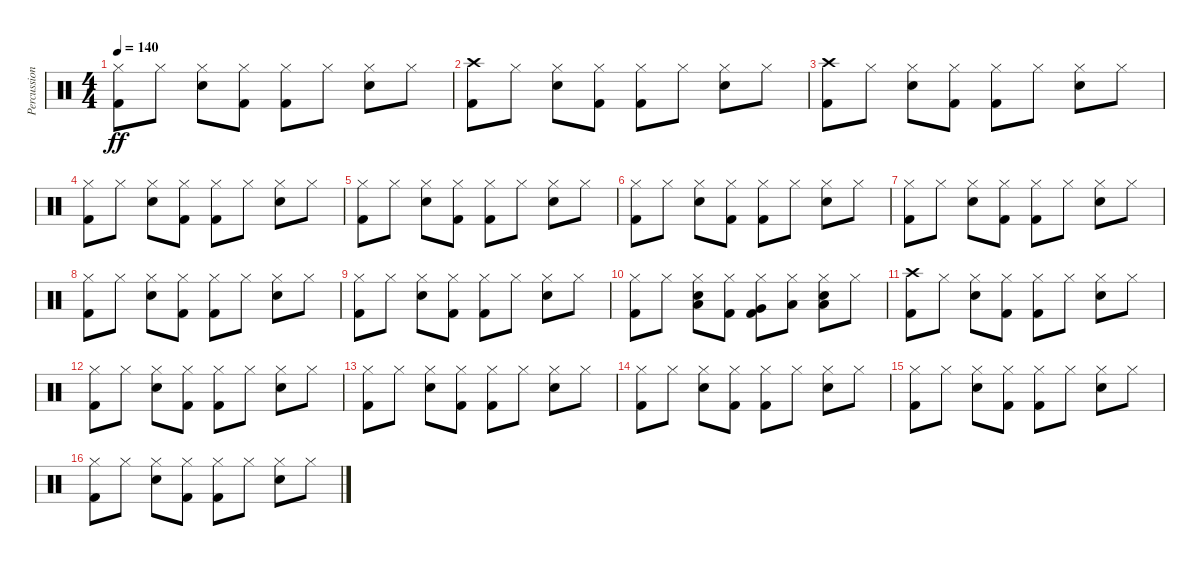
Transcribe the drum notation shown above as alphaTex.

\track ("Percussion" "Percussion") {instrument percussion}
\staff {score}
\articulation defaults
\ts (4 4)
\tempo 140
\clef neutral
\ks c
("Hi-Hat (closed)" "Kick (hit) 2").8{dy ff} "Hi-Hat (closed)".8 ("Hi-Hat (closed)" "Snare (hit) 2").8 ("Hi-Hat (closed)" "Kick (hit) 2").8 ("Hi-Hat (closed)" "Kick (hit) 2").8 "Hi-Hat (closed)".8 ("Hi-Hat (closed)" "Snare (hit) 2").8 "Hi-Hat (closed)".8 |
("Crash high (hit)" "Kick (hit) 2").8 "Hi-Hat (closed)".8 ("Hi-Hat (closed)" "Snare (hit) 2").8 ("Hi-Hat (closed)" "Kick (hit) 2").8 ("Hi-Hat (closed)" "Kick (hit) 2").8 "Hi-Hat (closed)".8 ("Hi-Hat (closed)" "Snare (hit) 2").8 "Hi-Hat (closed)".8 |
("Crash high (hit)" "Kick (hit) 2").8 "Hi-Hat (closed)".8 ("Hi-Hat (closed)" "Snare (hit) 2").8 ("Hi-Hat (closed)" "Kick (hit) 2").8 ("Hi-Hat (closed)" "Kick (hit) 2").8 "Hi-Hat (closed)".8 ("Hi-Hat (closed)" "Snare (hit) 2").8 "Hi-Hat (closed)".8 |
("Hi-Hat (closed)" "Kick (hit) 2").8 "Hi-Hat (closed)".8 ("Hi-Hat (closed)" "Snare (hit) 2").8 ("Hi-Hat (closed)" "Kick (hit) 2").8 ("Hi-Hat (closed)" "Kick (hit) 2").8 "Hi-Hat (closed)".8 ("Hi-Hat (closed)" "Snare (hit) 2").8 "Hi-Hat (closed)".8 |
("Hi-Hat (closed)" "Kick (hit) 2").8 "Hi-Hat (closed)".8 ("Hi-Hat (closed)" "Snare (hit) 2").8 ("Hi-Hat (closed)" "Kick (hit) 2").8 ("Hi-Hat (closed)" "Kick (hit) 2").8 "Hi-Hat (closed)".8 ("Hi-Hat (closed)" "Snare (hit) 2").8 "Hi-Hat (closed)".8 |
("Hi-Hat (closed)" "Kick (hit) 2").8 "Hi-Hat (closed)".8 ("Hi-Hat (closed)" "Snare (hit) 2").8 ("Hi-Hat (closed)" "Kick (hit) 2").8 ("Hi-Hat (closed)" "Kick (hit) 2").8 "Hi-Hat (closed)".8 ("Hi-Hat (closed)" "Snare (hit) 2").8 "Hi-Hat (closed)".8 |
("Hi-Hat (closed)" "Kick (hit) 2").8 "Hi-Hat (closed)".8 ("Hi-Hat (closed)" "Snare (hit) 2").8 ("Hi-Hat (closed)" "Kick (hit) 2").8 ("Hi-Hat (closed)" "Kick (hit) 2").8 "Hi-Hat (closed)".8 ("Hi-Hat (closed)" "Snare (hit) 2").8 "Hi-Hat (closed)".8 |
("Hi-Hat (closed)" "Kick (hit) 2").8 "Hi-Hat (closed)".8 ("Hi-Hat (closed)" "Snare (hit) 2").8 ("Hi-Hat (closed)" "Kick (hit) 2").8 ("Hi-Hat (closed)" "Kick (hit) 2").8 "Hi-Hat (closed)".8 ("Hi-Hat (closed)" "Snare (hit) 2").8 "Hi-Hat (closed)".8 |
("Hi-Hat (closed)" "Kick (hit) 2").8 "Hi-Hat (closed)".8 ("Hi-Hat (closed)" "Snare (hit) 2").8 ("Hi-Hat (closed)" "Kick (hit) 2").8 ("Hi-Hat (closed)" "Kick (hit) 2").8 "Hi-Hat (closed)".8 ("Hi-Hat (closed)" "Snare (hit) 2").8 "Hi-Hat (closed)".8 |
("Hi-Hat (closed)" "Kick (hit) 2").8 "Hi-Hat (closed)".8 ("Hi-Hat (closed)" "Snare (hit) 2" "Low Tom (hit)").8 ("Hi-Hat (closed)" "Kick (hit) 2").8 ("Hi-Hat (closed)" "Kick (hit) 2" "Very Low Tom (hit)").8 ("Hi-Hat (closed)" "Low Floor Tom (hit)").8 ("Hi-Hat (closed)" "Snare (hit) 2" "Low Floor Tom (hit)").8 "Hi-Hat (closed)".8 |
("Crash high (hit)" "Kick (hit) 2").8 "Hi-Hat (closed)".8 ("Hi-Hat (closed)" "Snare (hit) 2").8 ("Hi-Hat (closed)" "Kick (hit) 2").8 ("Hi-Hat (closed)" "Kick (hit) 2").8 "Hi-Hat (closed)".8 ("Hi-Hat (closed)" "Snare (hit) 2").8 "Hi-Hat (closed)".8 |
("Hi-Hat (closed)" "Kick (hit) 2").8 "Hi-Hat (closed)".8 ("Hi-Hat (closed)" "Snare (hit) 2").8 ("Hi-Hat (closed)" "Kick (hit) 2").8 ("Hi-Hat (closed)" "Kick (hit) 2").8 "Hi-Hat (closed)".8 ("Hi-Hat (closed)" "Snare (hit) 2").8 "Hi-Hat (closed)".8 |
("Hi-Hat (closed)" "Kick (hit) 2").8 "Hi-Hat (closed)".8 ("Hi-Hat (closed)" "Snare (hit) 2").8 ("Hi-Hat (closed)" "Kick (hit) 2").8 ("Hi-Hat (closed)" "Kick (hit) 2").8 "Hi-Hat (closed)".8 ("Hi-Hat (closed)" "Snare (hit) 2").8 "Hi-Hat (closed)".8 |
("Hi-Hat (closed)" "Kick (hit) 2").8 "Hi-Hat (closed)".8 ("Hi-Hat (closed)" "Snare (hit) 2").8 ("Hi-Hat (closed)" "Kick (hit) 2").8 ("Hi-Hat (closed)" "Kick (hit) 2").8 "Hi-Hat (closed)".8 ("Hi-Hat (closed)" "Snare (hit) 2").8 "Hi-Hat (closed)".8 |
("Hi-Hat (closed)" "Kick (hit) 2").8 "Hi-Hat (closed)".8 ("Hi-Hat (closed)" "Snare (hit) 2").8 ("Hi-Hat (closed)" "Kick (hit) 2").8 ("Hi-Hat (closed)" "Kick (hit) 2").8 "Hi-Hat (closed)".8 ("Hi-Hat (closed)" "Snare (hit) 2").8 "Hi-Hat (closed)".8 |
("Hi-Hat (closed)" "Kick (hit) 2").8 "Hi-Hat (closed)".8 ("Hi-Hat (closed)" "Snare (hit) 2").8 ("Hi-Hat (closed)" "Kick (hit) 2").8 ("Hi-Hat (closed)" "Kick (hit) 2").8 "Hi-Hat (closed)".8 ("Hi-Hat (closed)" "Snare (hit) 2").8 "Hi-Hat (closed)".8
